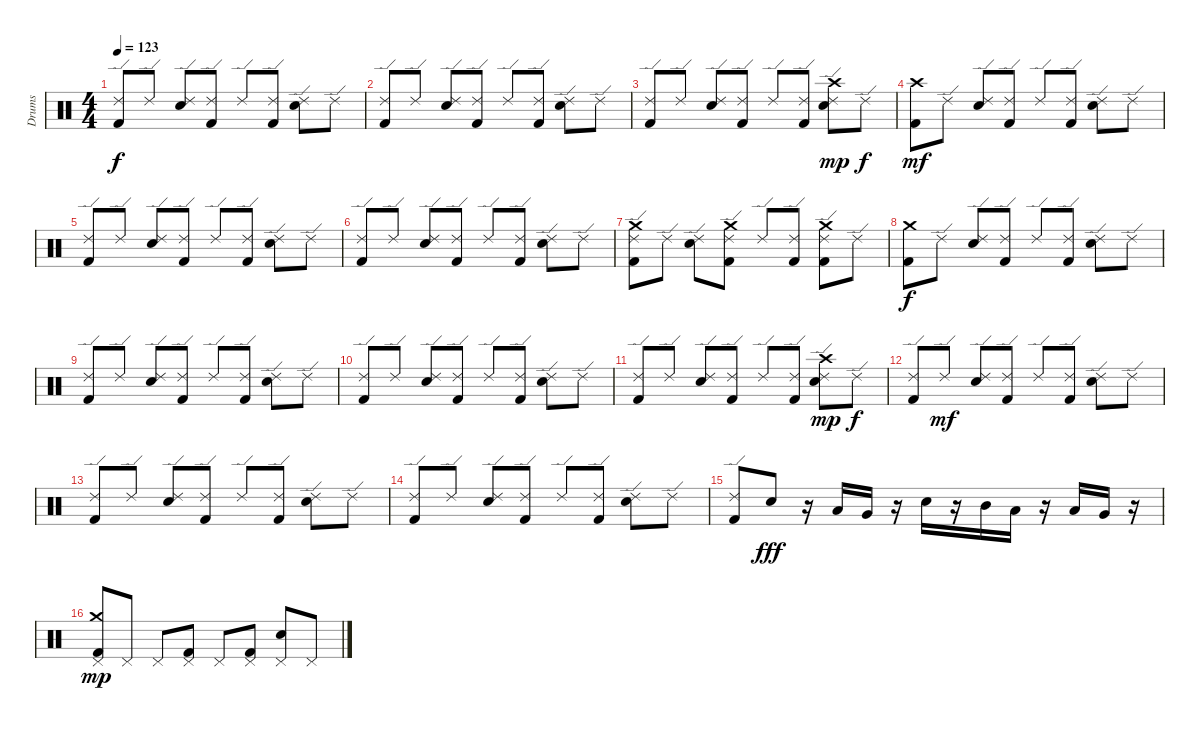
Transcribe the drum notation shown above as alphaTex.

\track ("Drums" "Drums") {instrument percussion}
\staff {score}
\articulation defaults
\ts (4 4)
\tempo 123
\clef neutral
\ks c
("Kick (hit) 2" "Ride (edge) 2").8{dy f} "Ride (edge) 2".8 ("Electric Snare (hit)" "Ride (edge) 2").8 ("Kick (hit) 2" "Ride (edge) 2").8 "Ride (edge) 2".8 ("Kick (hit) 2" "Ride (edge) 2").8 ("Electric Snare (hit)" "Ride (edge) 2").8 "Ride (edge) 2".8 |
("Kick (hit) 2" "Ride (edge) 2").8 "Ride (edge) 2".8 ("Electric Snare (hit)" "Ride (edge) 2").8 ("Kick (hit) 2" "Ride (edge) 2").8 "Ride (edge) 2".8 ("Kick (hit) 2" "Ride (edge) 2").8 ("Electric Snare (hit)" "Ride (edge) 2").8 "Ride (edge) 2".8 |
("Kick (hit) 2" "Ride (edge) 2").8 "Ride (edge) 2".8 ("Electric Snare (hit)" "Ride (edge) 2").8 ("Kick (hit) 2" "Ride (edge) 2").8 "Ride (edge) 2".8 ("Kick (hit) 2" "Ride (edge) 2").8 ("Electric Snare (hit)" "Crash high (hit)" "Ride (edge) 2").8{dy mp} "Ride (edge) 2".8{dy f} |
("Kick (hit) 2" "Crash high (hit)").8{dy mf} "Ride (edge) 2".8 ("Electric Snare (hit)" "Ride (edge) 2").8 ("Kick (hit) 2" "Ride (edge) 2").8 "Ride (edge) 2".8 ("Kick (hit) 2" "Ride (edge) 2").8 ("Electric Snare (hit)" "Ride (edge) 2").8 "Ride (edge) 2".8 |
("Kick (hit) 2" "Ride (edge) 2").8 "Ride (edge) 2".8 ("Electric Snare (hit)" "Ride (edge) 2").8 ("Kick (hit) 2" "Ride (edge) 2").8 "Ride (edge) 2".8 ("Kick (hit) 2" "Ride (edge) 2").8 ("Electric Snare (hit)" "Ride (edge) 2").8 "Ride (edge) 2".8 |
("Kick (hit) 2" "Ride (edge) 2").8 "Ride (edge) 2".8 ("Electric Snare (hit)" "Ride (edge) 2").8 ("Kick (hit) 2" "Ride (edge) 2").8 "Ride (edge) 2".8 ("Kick (hit) 2" "Ride (edge) 2").8 ("Electric Snare (hit)" "Ride (edge) 2").8 "Ride (edge) 2".8 |
("Kick (hit) 2" "Crash medium (hit)" "Ride (edge) 2").8 "Ride (edge) 2".8 ("Electric Snare (hit)" "Ride (edge) 2").8 ("Kick (hit) 2" "Crash medium (hit)" "Ride (edge) 2").8 "Ride (edge) 2".8 ("Kick (hit) 2" "Ride (edge) 2").8 ("Kick (hit) 2" "Crash medium (hit)" "Ride (edge) 2").8 "Ride (edge) 2".8 |
("Kick (hit) 2" "Crash medium (hit)").8{dy f} "Ride (edge) 2".8 ("Electric Snare (hit)" "Ride (edge) 2").8 ("Kick (hit) 2" "Ride (edge) 2").8 "Ride (edge) 2".8 ("Kick (hit) 2" "Ride (edge) 2").8 ("Electric Snare (hit)" "Ride (edge) 2").8 "Ride (edge) 2".8 |
("Kick (hit) 2" "Ride (edge) 2").8 "Ride (edge) 2".8 ("Electric Snare (hit)" "Ride (edge) 2").8 ("Kick (hit) 2" "Ride (edge) 2").8 "Ride (edge) 2".8 ("Kick (hit) 2" "Ride (edge) 2").8 ("Electric Snare (hit)" "Ride (edge) 2").8 "Ride (edge) 2".8 |
("Kick (hit) 2" "Ride (edge) 2").8 "Ride (edge) 2".8 ("Electric Snare (hit)" "Ride (edge) 2").8 ("Kick (hit) 2" "Ride (edge) 2").8 "Ride (edge) 2".8 ("Kick (hit) 2" "Ride (edge) 2").8 ("Electric Snare (hit)" "Ride (edge) 2").8 "Ride (edge) 2".8 |
("Kick (hit) 2" "Ride (edge) 2").8 "Ride (edge) 2".8 ("Electric Snare (hit)" "Ride (edge) 2").8 ("Kick (hit) 2" "Ride (edge) 2").8 "Ride (edge) 2".8 ("Kick (hit) 2" "Ride (edge) 2").8 ("Electric Snare (hit)" "Crash high (hit)" "Ride (edge) 2").8{dy mp} "Ride (edge) 2".8{dy f} |
("Kick (hit) 2" "Ride (edge) 2").8 "Ride (edge) 2".8{dy mf} ("Electric Snare (hit)" "Ride (edge) 2").8 ("Kick (hit) 2" "Ride (edge) 2").8 "Ride (edge) 2".8 ("Kick (hit) 2" "Ride (edge) 2").8 ("Electric Snare (hit)" "Ride (edge) 2").8 "Ride (edge) 2".8 |
("Kick (hit) 2" "Ride (edge) 2").8 "Ride (edge) 2".8 ("Electric Snare (hit)" "Ride (edge) 2").8 ("Kick (hit) 2" "Ride (edge) 2").8 "Ride (edge) 2".8 ("Kick (hit) 2" "Ride (edge) 2").8 ("Electric Snare (hit)" "Ride (edge) 2").8 "Ride (edge) 2".8 |
("Kick (hit) 2" "Ride (edge) 2").8 "Ride (edge) 2".8 ("Electric Snare (hit)" "Ride (edge) 2").8 ("Kick (hit) 2" "Ride (edge) 2").8 "Ride (edge) 2".8 ("Kick (hit) 2" "Ride (edge) 2").8 ("Electric Snare (hit)" "Ride (edge) 2").8 "Ride (edge) 2".8 |
("Kick (hit) 2" "Ride (edge) 2").8 "Electric Snare (hit)".8{dy fff} r.16 "Low Tom (hit)".16 "Very Low Tom (hit)".16 r.16 "Electric Snare (hit)".16 r.16 "Mid Tom (hit)".16 "Low Tom (hit)".16 r.16 "Low Tom (hit)".16 "Very Low Tom (hit)".16 r.16 |
("Kick (hit) 2" "Pedal Hi-Hat (hit)" "Crash medium (hit)").8{dy mp} "Pedal Hi-Hat (hit)".8 "Pedal Hi-Hat (hit)".8 ("Kick (hit) 2" "Pedal Hi-Hat (hit)").8 "Pedal Hi-Hat (hit)".8 ("Kick (hit) 2" "Pedal Hi-Hat (hit)").8 ("Electric Snare (hit)" "Pedal Hi-Hat (hit)").8 "Pedal Hi-Hat (hit)".8
